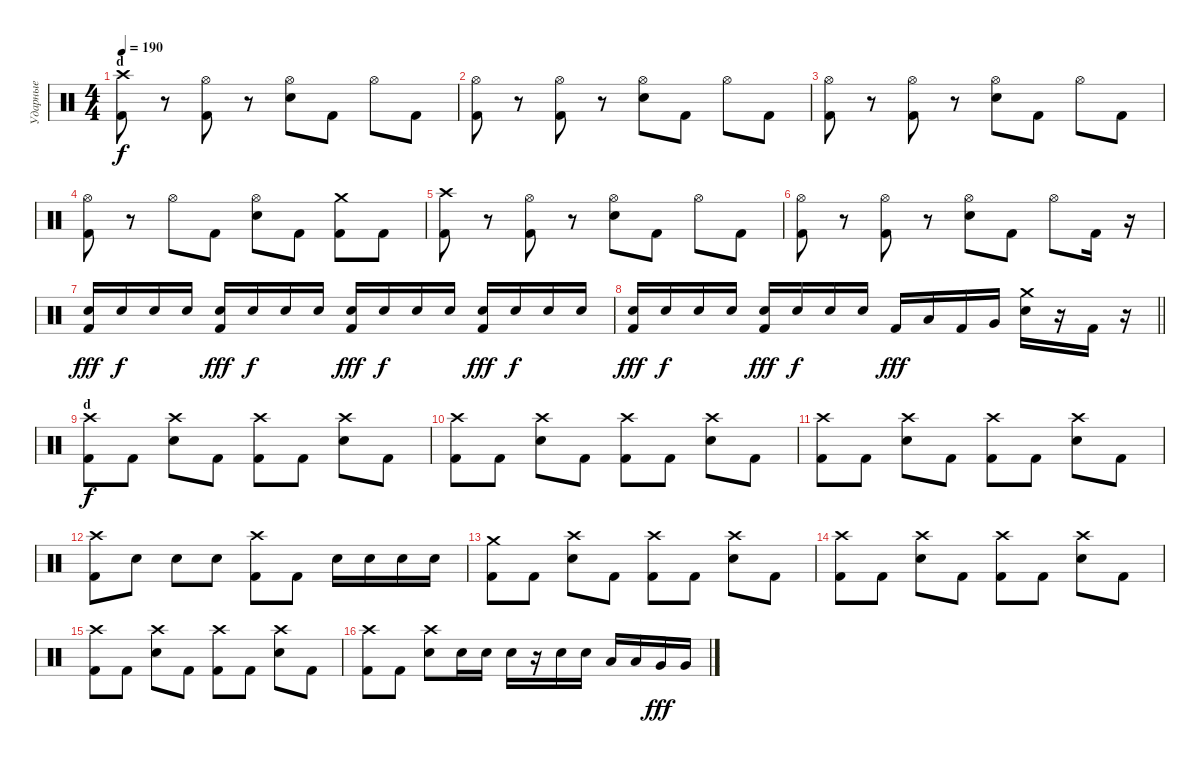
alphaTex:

\track ("Ударные" "Ударные") {instrument percussion}
\staff {score}
\articulation defaults
\ts (4 4)
\section ("" "d")
\tempo 190
\clef neutral
\ks c
("Crash high (hit)" "Kick (hit) 2").8{dy f} r.8 ("Hi-Hat (open)" "Kick (hit) 2").8 r.8 ("Hi-Hat (open)" "Snare (hit) 2").8 "Kick (hit) 2".8 "Hi-Hat (open)".8 "Kick (hit) 2".8 |
("Hi-Hat (open)" "Kick (hit) 2").8 r.8 ("Hi-Hat (open)" "Kick (hit) 2").8 r.8 ("Hi-Hat (open)" "Snare (hit) 2").8 "Kick (hit) 2".8 "Hi-Hat (open)".8 "Kick (hit) 2".8 |
("Hi-Hat (open)" "Kick (hit) 2").8 r.8 ("Hi-Hat (open)" "Kick (hit) 2").8 r.8 ("Hi-Hat (open)" "Snare (hit) 2").8 "Kick (hit) 2".8 "Hi-Hat (open)".8 "Kick (hit) 2".8 |
("Hi-Hat (open)" "Kick (hit) 2").8 r.8 "Hi-Hat (open)".8 "Kick (hit) 2".8 ("Hi-Hat (open)" "Snare (hit) 2").8 "Kick (hit) 2".8 ("Crash medium (hit)" "Kick (hit) 2").8 "Kick (hit) 2".8 |
("Crash high (hit)" "Kick (hit) 2").8 r.8 ("Hi-Hat (open)" "Kick (hit) 2").8 r.8 ("Hi-Hat (open)" "Snare (hit) 2").8 "Kick (hit) 2".8 "Hi-Hat (open)".8 "Kick (hit) 2".8 |
("Hi-Hat (open)" "Kick (hit) 2").8 r.8 ("Hi-Hat (open)" "Kick (hit) 2").8 r.8 ("Hi-Hat (open)" "Snare (hit) 2").8 "Kick (hit) 2".8 "Hi-Hat (open)".8 "Kick (hit) 2".16 r.16{volume 8} |
("Kick (hit) 2" "Snare (hit) 2").16{dy fff volume 16} "Snare (hit) 2".16{dy f} "Snare (hit) 2".16 "Snare (hit) 2".16 ("Kick (hit) 2" "Snare (hit) 2").16{dy fff} "Snare (hit) 2".16{dy f} "Snare (hit) 2".16 "Snare (hit) 2".16 ("Kick (hit) 2" "Snare (hit) 2").16{dy fff} "Snare (hit) 2".16{dy f} "Snare (hit) 2".16 "Snare (hit) 2".16 ("Kick (hit) 2" "Snare (hit) 2").16{dy fff} "Snare (hit) 2".16{dy f} "Snare (hit) 2".16 "Snare (hit) 2".16 |
\barLineRight lightlight
("Kick (hit) 2" "Snare (hit) 2").16{dy fff} "Snare (hit) 2".16{dy f} "Snare (hit) 2".16 "Snare (hit) 2".16 ("Kick (hit) 2" "Snare (hit) 2").16{dy fff} "Snare (hit) 2".16{dy f} "Snare (hit) 2".16 "Snare (hit) 2".16 "Kick (hit) 2".16{dy fff} "Low Tom (hit)".16 "Kick (hit) 2".16 "Very Low Tom (hit)".16 ("Crash medium (hit)" "Snare (hit) 2").16 r.16 "Kick (hit) 2".16 r.16 |
\section ("" "d")
("Crash high (hit)" "Kick (hit) 2").8{dy f} "Kick (hit) 2".8 ("Crash high (hit)" "Snare (hit) 2").8 "Kick (hit) 2".8 ("Crash high (hit)" "Kick (hit) 2").8 "Kick (hit) 2".8 ("Crash high (hit)" "Snare (hit) 2").8 "Kick (hit) 2".8 |
("Crash high (hit)" "Kick (hit) 2").8 "Kick (hit) 2".8 ("Crash high (hit)" "Snare (hit) 2").8 "Kick (hit) 2".8 ("Crash high (hit)" "Kick (hit) 2").8 "Kick (hit) 2".8 ("Crash high (hit)" "Snare (hit) 2").8 "Kick (hit) 2".8 |
("Crash high (hit)" "Kick (hit) 2").8 "Kick (hit) 2".8 ("Crash high (hit)" "Snare (hit) 2").8 "Kick (hit) 2".8 ("Crash high (hit)" "Kick (hit) 2").8 "Kick (hit) 2".8 ("Crash high (hit)" "Snare (hit) 2").8 "Kick (hit) 2".8 |
("Crash high (hit)" "Kick (hit) 2").8 "Snare (hit) 2".8 "Snare (hit) 2".8 "Snare (hit) 2".8 ("Crash high (hit)" "Kick (hit) 2").8 "Kick (hit) 2".8 "Snare (hit) 2".16 "Snare (hit) 2".16 "Snare (hit) 2".16 "Snare (hit) 2".16 |
("Crash medium (hit)" "Kick (hit) 2").8 "Kick (hit) 2".8 ("Crash high (hit)" "Snare (hit) 2").8 "Kick (hit) 2".8 ("Crash high (hit)" "Kick (hit) 2").8 "Kick (hit) 2".8 ("Crash high (hit)" "Snare (hit) 2").8 "Kick (hit) 2".8 |
("Crash high (hit)" "Kick (hit) 2").8 "Kick (hit) 2".8 ("Crash high (hit)" "Snare (hit) 2").8 "Kick (hit) 2".8 ("Crash high (hit)" "Kick (hit) 2").8 "Kick (hit) 2".8 ("Crash high (hit)" "Snare (hit) 2").8 "Kick (hit) 2".8 |
("Crash high (hit)" "Kick (hit) 2").8 "Kick (hit) 2".8 ("Crash high (hit)" "Snare (hit) 2").8 "Kick (hit) 2".8 ("Crash high (hit)" "Kick (hit) 2").8 "Kick (hit) 2".8 ("Crash high (hit)" "Snare (hit) 2").8 "Kick (hit) 2".8 |
("Crash high (hit)" "Kick (hit) 2").8 "Kick (hit) 2".8 ("Crash high (hit)" "Snare (hit) 2").8 "Snare (hit) 2".16 "Snare (hit) 2".16 "Snare (hit) 2".16 r.16 "Snare (hit) 2".16 "Snare (hit) 2".16 "Low Tom (hit)".16 "Low Tom (hit)".16 "Very Low Tom (hit)".16{dy fff} "Very Low Tom (hit)".16
